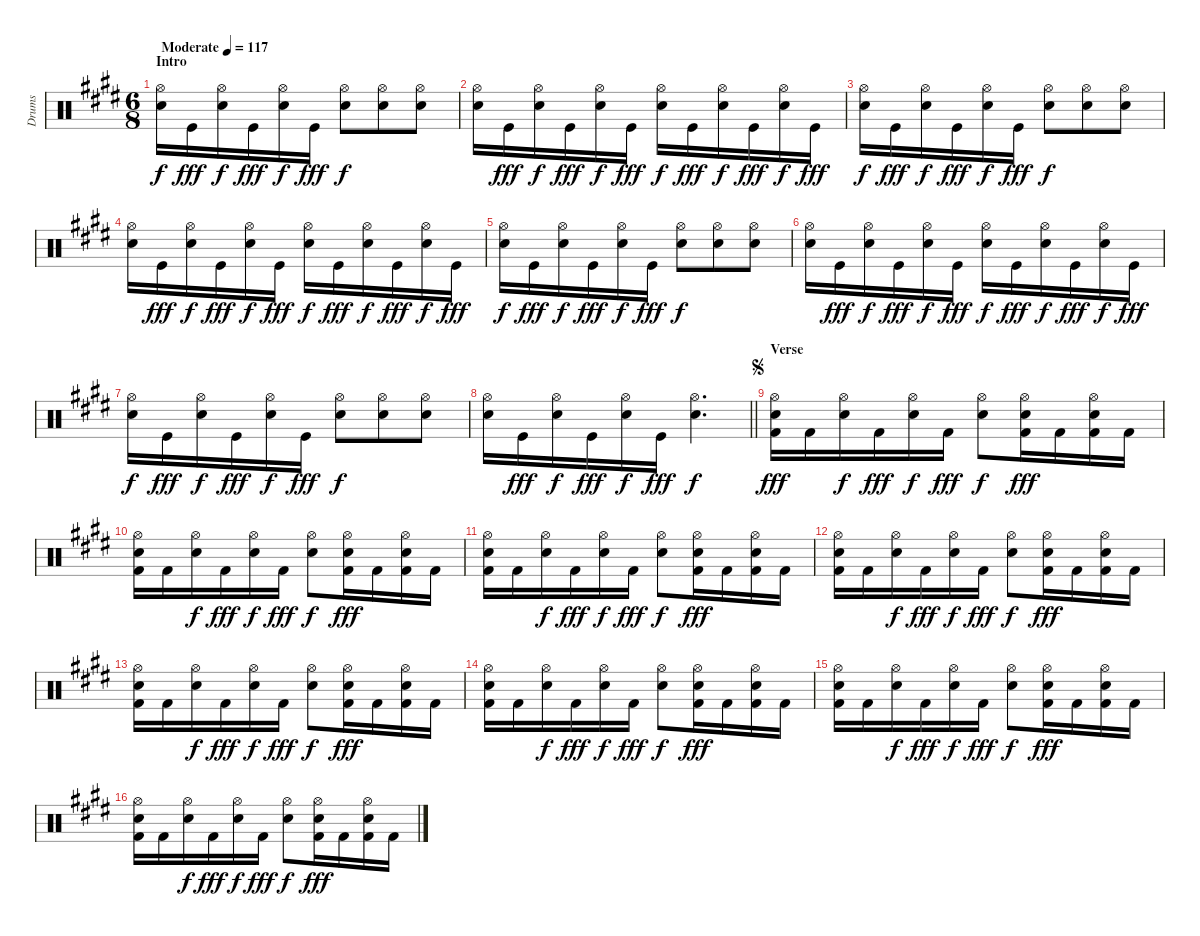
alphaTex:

\track ("Drums" "Drums") {instrument percussion}
\staff {score}
\articulation defaults
\ts (6 8)
\section ("" "Intro")
\tempo (117 "Moderate")
\clef neutral
\ks c#minor
("Hi-Hat (open)" "Snare (hit) 2").16{dy f volume 10} "Kick (hit)".16{dy fff} ("Hi-Hat (open)" "Snare (hit) 2").16{dy f} "Kick (hit)".16{dy fff} ("Hi-Hat (open)" "Snare (hit) 2").16{dy f} "Kick (hit)".16{dy fff} ("Hi-Hat (open)" "Snare (hit) 2").8{dy f} ("Hi-Hat (open)" "Snare (hit) 2").8 ("Hi-Hat (open)" "Snare (hit) 2").8 |
("Hi-Hat (open)" "Snare (hit) 2").16 "Kick (hit)".16{dy fff} ("Hi-Hat (open)" "Snare (hit) 2").16{dy f} "Kick (hit)".16{dy fff} ("Hi-Hat (open)" "Snare (hit) 2").16{dy f} "Kick (hit)".16{dy fff} ("Hi-Hat (open)" "Snare (hit) 2").16{dy f} "Kick (hit)".16{dy fff} ("Hi-Hat (open)" "Snare (hit) 2").16{dy f} "Kick (hit)".16{dy fff} ("Hi-Hat (open)" "Snare (hit) 2").16{dy f} "Kick (hit)".16{dy fff} |
("Hi-Hat (open)" "Snare (hit) 2").16{dy f} "Kick (hit)".16{dy fff} ("Hi-Hat (open)" "Snare (hit) 2").16{dy f} "Kick (hit)".16{dy fff} ("Hi-Hat (open)" "Snare (hit) 2").16{dy f} "Kick (hit)".16{dy fff} ("Hi-Hat (open)" "Snare (hit) 2").8{dy f} ("Hi-Hat (open)" "Snare (hit) 2").8 ("Hi-Hat (open)" "Snare (hit) 2").8 |
("Hi-Hat (open)" "Snare (hit) 2").16 "Kick (hit)".16{dy fff} ("Hi-Hat (open)" "Snare (hit) 2").16{dy f} "Kick (hit)".16{dy fff} ("Hi-Hat (open)" "Snare (hit) 2").16{dy f} "Kick (hit)".16{dy fff} ("Hi-Hat (open)" "Snare (hit) 2").16{dy f} "Kick (hit)".16{dy fff} ("Hi-Hat (open)" "Snare (hit) 2").16{dy f} "Kick (hit)".16{dy fff} ("Hi-Hat (open)" "Snare (hit) 2").16{dy f} "Kick (hit)".16{dy fff} |
("Hi-Hat (open)" "Snare (hit) 2").16{dy f} "Kick (hit)".16{dy fff} ("Hi-Hat (open)" "Snare (hit) 2").16{dy f} "Kick (hit)".16{dy fff} ("Hi-Hat (open)" "Snare (hit) 2").16{dy f} "Kick (hit)".16{dy fff} ("Hi-Hat (open)" "Snare (hit) 2").8{dy f} ("Hi-Hat (open)" "Snare (hit) 2").8 ("Hi-Hat (open)" "Snare (hit) 2").8 |
("Hi-Hat (open)" "Snare (hit) 2").16 "Kick (hit)".16{dy fff} ("Hi-Hat (open)" "Snare (hit) 2").16{dy f} "Kick (hit)".16{dy fff} ("Hi-Hat (open)" "Snare (hit) 2").16{dy f} "Kick (hit)".16{dy fff} ("Hi-Hat (open)" "Snare (hit) 2").16{dy f} "Kick (hit)".16{dy fff} ("Hi-Hat (open)" "Snare (hit) 2").16{dy f} "Kick (hit)".16{dy fff} ("Hi-Hat (open)" "Snare (hit) 2").16{dy f} "Kick (hit)".16{dy fff} |
("Hi-Hat (open)" "Snare (hit) 2").16{dy f} "Kick (hit)".16{dy fff} ("Hi-Hat (open)" "Snare (hit) 2").16{dy f} "Kick (hit)".16{dy fff} ("Hi-Hat (open)" "Snare (hit) 2").16{dy f} "Kick (hit)".16{dy fff} ("Hi-Hat (open)" "Snare (hit) 2").8{dy f} ("Hi-Hat (open)" "Snare (hit) 2").8 ("Hi-Hat (open)" "Snare (hit) 2").8 |
\barLineRight lightlight
("Hi-Hat (open)" "Snare (hit) 2").16 "Kick (hit)".16{dy fff} ("Hi-Hat (open)" "Snare (hit) 2").16{dy f} "Kick (hit)".16{dy fff} ("Hi-Hat (open)" "Snare (hit) 2").16{dy f} "Kick (hit)".16{dy fff} ("Hi-Hat (open)" "Electric Snare (hit)").4{d dy f} |
\section ("" "Verse")
\jump segno
("Hi-Hat (open)" "Electric Snare (hit)" "Kick (hit) 2").16{dy fff volume 16} "Kick (hit) 2".16 ("Hi-Hat (open)" "Electric Snare (hit)").16{dy f} "Kick (hit) 2".16{dy fff} ("Hi-Hat (open)" "Electric Snare (hit)").16{dy f} "Kick (hit) 2".16{dy fff} ("Hi-Hat (open)" "Electric Snare (hit)").8{dy f} ("Hi-Hat (open)" "Electric Snare (hit)" "Kick (hit) 2").16{dy fff} "Kick (hit) 2".16 ("Hi-Hat (open)" "Electric Snare (hit)" "Kick (hit) 2").16 "Kick (hit) 2".16 |
("Hi-Hat (open)" "Electric Snare (hit)" "Kick (hit) 2").16 "Kick (hit) 2".16 ("Hi-Hat (open)" "Electric Snare (hit)").16{dy f} "Kick (hit) 2".16{dy fff} ("Hi-Hat (open)" "Electric Snare (hit)").16{dy f} "Kick (hit) 2".16{dy fff} ("Hi-Hat (open)" "Electric Snare (hit)").8{dy f} ("Hi-Hat (open)" "Electric Snare (hit)" "Kick (hit) 2").16{dy fff} "Kick (hit) 2".16 ("Hi-Hat (open)" "Electric Snare (hit)" "Kick (hit) 2").16 "Kick (hit) 2".16 |
("Hi-Hat (open)" "Electric Snare (hit)" "Kick (hit) 2").16 "Kick (hit) 2".16 ("Hi-Hat (open)" "Electric Snare (hit)").16{dy f} "Kick (hit) 2".16{dy fff} ("Hi-Hat (open)" "Electric Snare (hit)").16{dy f} "Kick (hit) 2".16{dy fff} ("Hi-Hat (open)" "Electric Snare (hit)").8{dy f} ("Hi-Hat (open)" "Electric Snare (hit)" "Kick (hit) 2").16{dy fff} "Kick (hit) 2".16 ("Hi-Hat (open)" "Electric Snare (hit)" "Kick (hit) 2").16 "Kick (hit) 2".16 |
("Hi-Hat (open)" "Electric Snare (hit)" "Kick (hit) 2").16 "Kick (hit) 2".16 ("Hi-Hat (open)" "Electric Snare (hit)").16{dy f} "Kick (hit) 2".16{dy fff} ("Hi-Hat (open)" "Electric Snare (hit)").16{dy f} "Kick (hit) 2".16{dy fff} ("Hi-Hat (open)" "Electric Snare (hit)").8{dy f} ("Hi-Hat (open)" "Electric Snare (hit)" "Kick (hit) 2").16{dy fff} "Kick (hit) 2".16 ("Hi-Hat (open)" "Electric Snare (hit)" "Kick (hit) 2").16 "Kick (hit) 2".16 |
("Hi-Hat (open)" "Electric Snare (hit)" "Kick (hit) 2").16 "Kick (hit) 2".16 ("Hi-Hat (open)" "Electric Snare (hit)").16{dy f} "Kick (hit) 2".16{dy fff} ("Hi-Hat (open)" "Electric Snare (hit)").16{dy f} "Kick (hit) 2".16{dy fff} ("Hi-Hat (open)" "Electric Snare (hit)").8{dy f} ("Hi-Hat (open)" "Electric Snare (hit)" "Kick (hit) 2").16{dy fff} "Kick (hit) 2".16 ("Hi-Hat (open)" "Electric Snare (hit)" "Kick (hit) 2").16 "Kick (hit) 2".16 |
("Hi-Hat (open)" "Electric Snare (hit)" "Kick (hit) 2").16 "Kick (hit) 2".16 ("Hi-Hat (open)" "Electric Snare (hit)").16{dy f} "Kick (hit) 2".16{dy fff} ("Hi-Hat (open)" "Electric Snare (hit)").16{dy f} "Kick (hit) 2".16{dy fff} ("Hi-Hat (open)" "Electric Snare (hit)").8{dy f} ("Hi-Hat (open)" "Electric Snare (hit)" "Kick (hit) 2").16{dy fff} "Kick (hit) 2".16 ("Hi-Hat (open)" "Electric Snare (hit)" "Kick (hit) 2").16 "Kick (hit) 2".16 |
("Hi-Hat (open)" "Electric Snare (hit)" "Kick (hit) 2").16 "Kick (hit) 2".16 ("Hi-Hat (open)" "Electric Snare (hit)").16{dy f} "Kick (hit) 2".16{dy fff} ("Hi-Hat (open)" "Electric Snare (hit)").16{dy f} "Kick (hit) 2".16{dy fff} ("Hi-Hat (open)" "Electric Snare (hit)").8{dy f} ("Hi-Hat (open)" "Electric Snare (hit)" "Kick (hit) 2").16{dy fff} "Kick (hit) 2".16 ("Hi-Hat (open)" "Electric Snare (hit)" "Kick (hit) 2").16 "Kick (hit) 2".16 |
("Hi-Hat (open)" "Electric Snare (hit)" "Kick (hit) 2").16 "Kick (hit) 2".16 ("Hi-Hat (open)" "Electric Snare (hit)").16{dy f} "Kick (hit) 2".16{dy fff} ("Hi-Hat (open)" "Electric Snare (hit)").16{dy f} "Kick (hit) 2".16{dy fff} ("Hi-Hat (open)" "Electric Snare (hit)").8{dy f} ("Hi-Hat (open)" "Electric Snare (hit)" "Kick (hit) 2").16{dy fff} "Kick (hit) 2".16 ("Hi-Hat (open)" "Electric Snare (hit)" "Kick (hit) 2").16 "Kick (hit) 2".16
